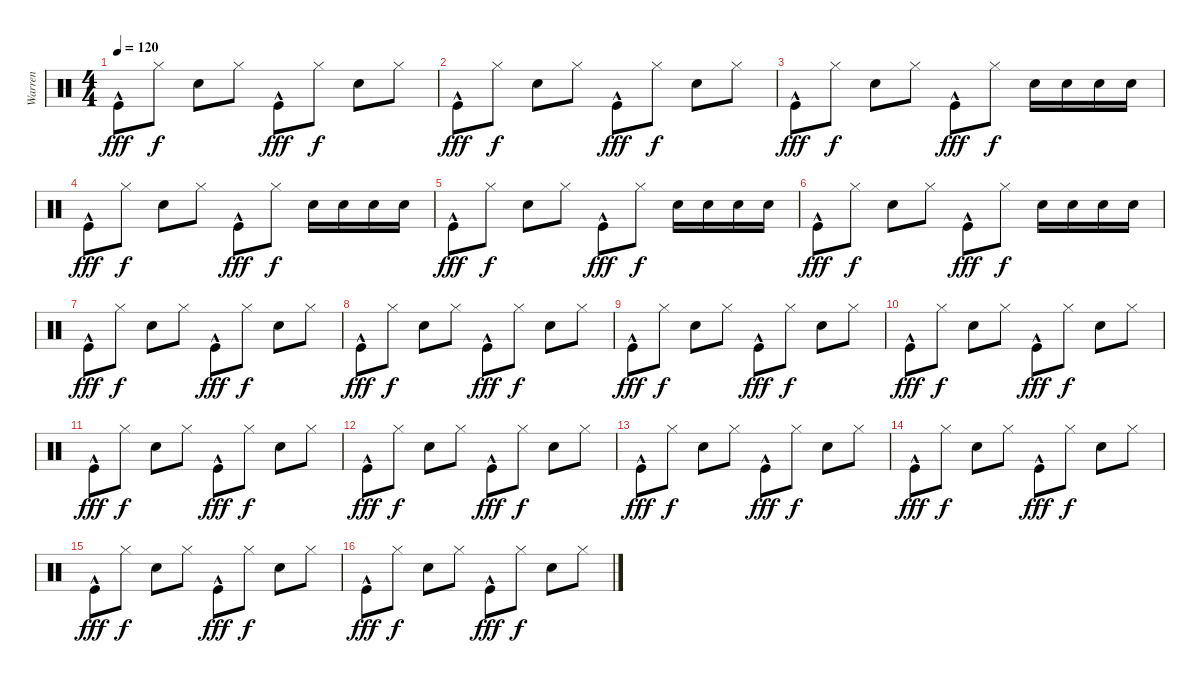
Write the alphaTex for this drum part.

\track ("Warren" "Warren") {instrument percussion}
\staff {score}
\articulation defaults
\ts (4 4)
\tempo 120
\clef neutral
\ks c "Kick (hit)"{hac}.8{dy fff} "Hi-Hat (closed)".8{dy f} "Electric Snare (hit)".8 "Hi-Hat (closed)".8 "Kick (hit)"{hac}.8{dy fff} "Hi-Hat (closed)".8{dy f} "Electric Snare (hit)".8 "Hi-Hat (closed)".8
|
"Kick (hit)"{hac}.8{dy fff} "Hi-Hat (closed)".8{dy f} "Electric Snare (hit)".8 "Hi-Hat (closed)".8 "Kick (hit)"{hac}.8{dy fff} "Hi-Hat (closed)".8{dy f} "Electric Snare (hit)".8 "Hi-Hat (closed)".8 |
"Kick (hit)"{hac}.8{dy fff} "Hi-Hat (closed)".8{dy f} "Electric Snare (hit)".8 "Hi-Hat (closed)".8 "Kick (hit)"{hac}.8{dy fff} "Hi-Hat (closed)".8{dy f} "Electric Snare (hit)".16 "Electric Snare (hit)".16 "Electric Snare (hit)".16 "Electric Snare (hit)".16 |
"Kick (hit)"{hac}.8{dy fff} "Hi-Hat (closed)".8{dy f} "Electric Snare (hit)".8 "Hi-Hat (closed)".8 "Kick (hit)"{hac}.8{dy fff} "Hi-Hat (closed)".8{dy f} "Electric Snare (hit)".16 "Electric Snare (hit)".16 "Electric Snare (hit)".16 "Electric Snare (hit)".16 |
"Kick (hit)"{hac}.8{dy fff} "Hi-Hat (closed)".8{dy f} "Electric Snare (hit)".8 "Hi-Hat (closed)".8 "Kick (hit)"{hac}.8{dy fff} "Hi-Hat (closed)".8{dy f} "Electric Snare (hit)".16 "Electric Snare (hit)".16 "Electric Snare (hit)".16 "Electric Snare (hit)".16 |
"Kick (hit)"{hac}.8{dy fff} "Hi-Hat (closed)".8{dy f} "Electric Snare (hit)".8 "Hi-Hat (closed)".8 "Kick (hit)"{hac}.8{dy fff} "Hi-Hat (closed)".8{dy f} "Electric Snare (hit)".16 "Electric Snare (hit)".16 "Electric Snare (hit)".16 "Electric Snare (hit)".16 |
"Kick (hit)"{hac}.8{dy fff} "Hi-Hat (closed)".8{dy f} "Electric Snare (hit)".8 "Hi-Hat (closed)".8 "Kick (hit)"{hac}.8{dy fff} "Hi-Hat (closed)".8{dy f} "Electric Snare (hit)".8 "Hi-Hat (closed)".8 |
"Kick (hit)"{hac}.8{dy fff} "Hi-Hat (closed)".8{dy f} "Electric Snare (hit)".8 "Hi-Hat (closed)".8 "Kick (hit)"{hac}.8{dy fff} "Hi-Hat (closed)".8{dy f} "Electric Snare (hit)".8 "Hi-Hat (closed)".8 |
"Kick (hit)"{hac}.8{dy fff} "Hi-Hat (closed)".8{dy f} "Electric Snare (hit)".8 "Hi-Hat (closed)".8 "Kick (hit)"{hac}.8{dy fff} "Hi-Hat (closed)".8{dy f} "Electric Snare (hit)".8 "Hi-Hat (closed)".8 |
"Kick (hit)"{hac}.8{dy fff} "Hi-Hat (closed)".8{dy f} "Electric Snare (hit)".8 "Hi-Hat (closed)".8 "Kick (hit)"{hac}.8{dy fff} "Hi-Hat (closed)".8{dy f} "Electric Snare (hit)".8 "Hi-Hat (closed)".8 |
"Kick (hit)"{hac}.8{dy fff} "Hi-Hat (closed)".8{dy f} "Electric Snare (hit)".8 "Hi-Hat (closed)".8 "Kick (hit)"{hac}.8{dy fff} "Hi-Hat (closed)".8{dy f} "Electric Snare (hit)".8 "Hi-Hat (closed)".8 |
"Kick (hit)"{hac}.8{dy fff} "Hi-Hat (closed)".8{dy f} "Electric Snare (hit)".8 "Hi-Hat (closed)".8 "Kick (hit)"{hac}.8{dy fff} "Hi-Hat (closed)".8{dy f} "Electric Snare (hit)".8 "Hi-Hat (closed)".8 |
"Kick (hit)"{hac}.8{dy fff} "Hi-Hat (closed)".8{dy f} "Electric Snare (hit)".8 "Hi-Hat (closed)".8 "Kick (hit)"{hac}.8{dy fff} "Hi-Hat (closed)".8{dy f} "Electric Snare (hit)".8 "Hi-Hat (closed)".8 |
"Kick (hit)"{hac}.8{dy fff} "Hi-Hat (closed)".8{dy f} "Electric Snare (hit)".8 "Hi-Hat (closed)".8 "Kick (hit)"{hac}.8{dy fff} "Hi-Hat (closed)".8{dy f} "Electric Snare (hit)".8 "Hi-Hat (closed)".8 |
"Kick (hit)"{hac}.8{dy fff} "Hi-Hat (closed)".8{dy f} "Electric Snare (hit)".8 "Hi-Hat (closed)".8 "Kick (hit)"{hac}.8{dy fff} "Hi-Hat (closed)".8{dy f} "Electric Snare (hit)".8 "Hi-Hat (closed)".8 |
"Kick (hit)"{hac}.8{dy fff} "Hi-Hat (closed)".8{dy f} "Electric Snare (hit)".8 "Hi-Hat (closed)".8 "Kick (hit)"{hac}.8{dy fff} "Hi-Hat (closed)".8{dy f} "Electric Snare (hit)".8 "Hi-Hat (closed)".8
